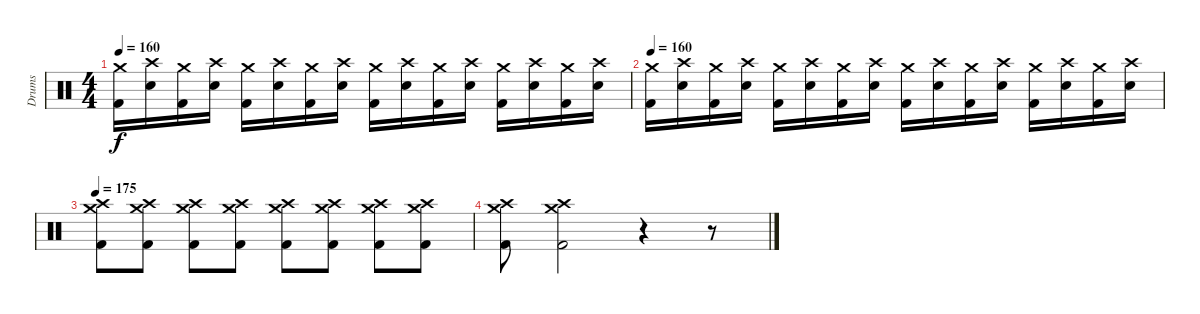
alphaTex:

\track ("Drums" "Drums") {instrument percussion}
\staff {score}
\articulation defaults
\ts (4 4)
\tempo 160
\clef neutral
\ks c
("Crash medium (hit)" "Kick (hit) 2").16{dy f} ("Crash high (hit)" "Snare (hit) 2").16 ("Crash medium (hit)" "Kick (hit) 2").16 ("Crash high (hit)" "Snare (hit) 2").16 ("Crash medium (hit)" "Kick (hit) 2").16 ("Crash high (hit)" "Snare (hit) 2").16 ("Crash medium (hit)" "Kick (hit) 2").16 ("Crash high (hit)" "Snare (hit) 2").16 ("Crash medium (hit)" "Kick (hit) 2").16 ("Crash high (hit)" "Snare (hit) 2").16 ("Crash medium (hit)" "Kick (hit) 2").16 ("Crash high (hit)" "Snare (hit) 2").16 ("Crash medium (hit)" "Kick (hit) 2").16 ("Crash high (hit)" "Snare (hit) 2").16 ("Crash medium (hit)" "Kick (hit) 2").16 ("Crash high (hit)" "Snare (hit) 2").16 |
\tempo 160
("Crash medium (hit)" "Kick (hit) 2").16 ("Crash high (hit)" "Snare (hit) 2").16 ("Crash medium (hit)" "Kick (hit) 2").16 ("Crash high (hit)" "Snare (hit) 2").16 ("Crash medium (hit)" "Kick (hit) 2").16 ("Crash high (hit)" "Snare (hit) 2").16 ("Crash medium (hit)" "Kick (hit) 2").16 ("Crash high (hit)" "Snare (hit) 2").16 ("Crash medium (hit)" "Kick (hit) 2").16 ("Crash high (hit)" "Snare (hit) 2").16 ("Crash medium (hit)" "Kick (hit) 2").16 ("Crash high (hit)" "Snare (hit) 2").16 ("Crash medium (hit)" "Kick (hit) 2").16 ("Crash high (hit)" "Snare (hit) 2").16 ("Crash medium (hit)" "Kick (hit) 2").16 ("Crash high (hit)" "Snare (hit) 2").16 |
\tempo 160
\tempo 175
("Crash high (hit)" "Crash medium (hit)" "Kick (hit) 2").8 ("Crash high (hit)" "Crash medium (hit)" "Kick (hit) 2").8 ("Crash high (hit)" "Crash medium (hit)" "Kick (hit) 2").8 ("Crash high (hit)" "Crash medium (hit)" "Kick (hit) 2").8 ("Crash high (hit)" "Crash medium (hit)" "Kick (hit) 2").8 ("Crash high (hit)" "Crash medium (hit)" "Kick (hit) 2").8 ("Crash high (hit)" "Crash medium (hit)" "Kick (hit) 2").8 ("Crash high (hit)" "Crash medium (hit)" "Kick (hit) 2").8 |
("Crash high (hit)" "Crash medium (hit)" "Kick (hit) 2").8 ("Crash high (hit)" "Crash medium (hit)" "Kick (hit) 2").2 r.4 r.8
